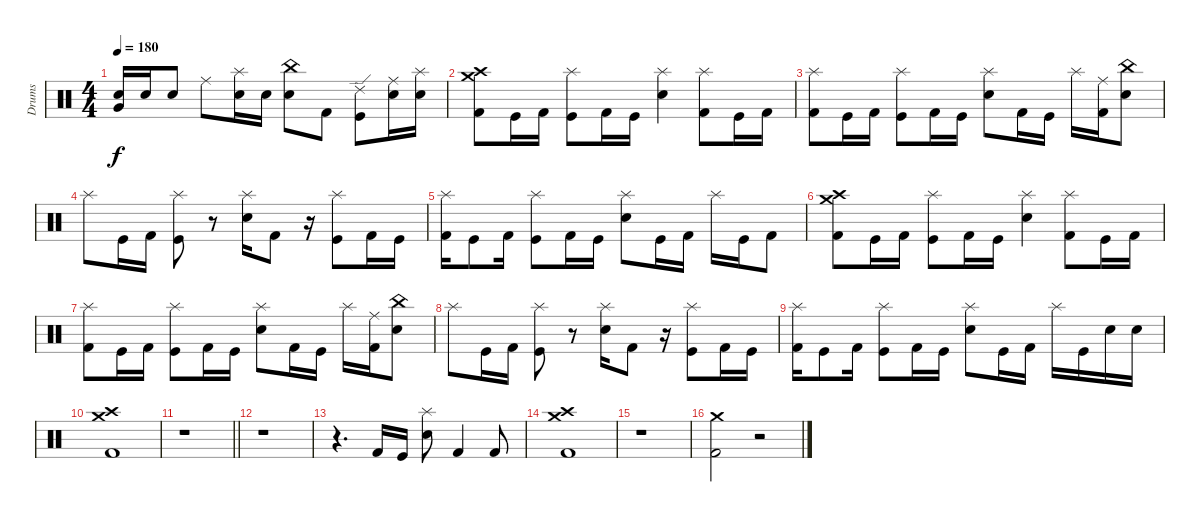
\track ("Drums" "Drums") {instrument percussion}
\staff {score}
\articulation defaults
\ts (4 4)
\tempo 180
\clef neutral
\ks c
("Very Low Tom (hit)" "Electric Snare (hit)").16{dy f} "Electric Snare (hit)".16 "Electric Snare (hit)".8 "Ride (middle)".8 ("Splash (hit)" "Electric Snare (hit)").16 "Electric Snare (hit)".16 ("China (hit)" "Electric Snare (hit)").8 "Kick (hit) 2".8 ("Ride (edge) 2" "Kick (hit)").8 ("Ride (middle)" "Electric Snare (hit)").16 ("Splash (hit)" "Electric Snare (hit)").16 |
("Crash high (hit)" "Crash medium (hit)" "Kick (hit) 2").8 "Kick (hit)".16 "Kick (hit) 2".16 ("Splash (hit)" "Kick (hit)").8 "Kick (hit) 2".16 "Kick (hit)".16 ("Splash (hit)" "Electric Snare (hit)").4 ("Splash (hit)" "Kick (hit) 2").8 "Kick (hit)".16 "Kick (hit) 2".16 |
("Splash (hit)" "Kick (hit) 2").8 "Kick (hit)".16 "Kick (hit) 2".16 ("Splash (hit)" "Kick (hit)").8 "Kick (hit) 2".16 "Kick (hit)".16 ("Splash (hit)" "Electric Snare (hit)").8 "Kick (hit) 2".16 "Kick (hit)".16 "Splash (hit)".16 ("Ride (middle)" "Kick (hit) 2").16 ("China (hit)" "Electric Snare (hit)").8 |
"Splash (hit)".8 "Kick (hit)".16 "Kick (hit) 2".16 ("Splash (hit)" "Kick (hit)").8 r.8 ("Splash (hit)" "Electric Snare (hit)").16 "Kick (hit) 2".8 r.16 ("Splash (hit)" "Kick (hit)").8 "Kick (hit) 2".16 "Kick (hit)".16 |
("Splash (hit)" "Kick (hit) 2").16 "Kick (hit)".8 "Kick (hit) 2".16 ("Splash (hit)" "Kick (hit)").8 "Kick (hit) 2".16 "Kick (hit)".16 ("Splash (hit)" "Electric Snare (hit)").8 "Kick (hit)".16 "Kick (hit) 2".16 "Splash (hit)".16 "Kick (hit)".16 "Kick (hit) 2".8 |
("Crash high (hit)" "Crash medium (hit)" "Kick (hit) 2").8 "Kick (hit)".16 "Kick (hit) 2".16 ("Splash (hit)" "Kick (hit)").8 "Kick (hit) 2".16 "Kick (hit)".16 ("Splash (hit)" "Electric Snare (hit)").4 ("Splash (hit)" "Kick (hit) 2").8 "Kick (hit)".16 "Kick (hit) 2".16 |
("Splash (hit)" "Kick (hit) 2").8 "Kick (hit)".16 "Kick (hit) 2".16 ("Splash (hit)" "Kick (hit)").8 "Kick (hit) 2".16 "Kick (hit)".16 ("Splash (hit)" "Electric Snare (hit)").8 "Kick (hit) 2".16 "Kick (hit)".16 "Splash (hit)".16 ("Ride (middle)" "Kick (hit) 2").16 ("China (hit)" "Electric Snare (hit)").8 |
"Splash (hit)".8 "Kick (hit)".16 "Kick (hit) 2".16 ("Splash (hit)" "Kick (hit)").8 r.8 ("Splash (hit)" "Electric Snare (hit)").16 "Kick (hit) 2".8 r.16 ("Splash (hit)" "Kick (hit)").8 "Kick (hit) 2".16 "Kick (hit)".16 |
("Splash (hit)" "Kick (hit) 2").16 "Kick (hit)".8 "Kick (hit) 2".16 ("Splash (hit)" "Kick (hit)").8 "Kick (hit) 2".16 "Kick (hit)".16 ("Splash (hit)" "Electric Snare (hit)").8 "Kick (hit)".16 "Kick (hit) 2".16 "Splash (hit)".16 "Kick (hit)".16 "Electric Snare (hit)".16 "Electric Snare (hit)".16 |
("Crash medium (hit)" "Crash high (hit)" "Kick (hit) 2").1 |
\barLineRight lightlight
r.1 |
r.1 |
r.4{d} "Kick (hit) 2".16 "Kick (hit)".16 ("Electric Snare (hit)" "Splash (hit)").8 "Kick (hit) 2".4 "Kick (hit) 2".8 |
("Crash medium (hit)" "Crash high (hit)" "Kick (hit) 2").1 |
r.1 |
("Crash medium (hit)" "Kick (hit) 2").2 r.2
